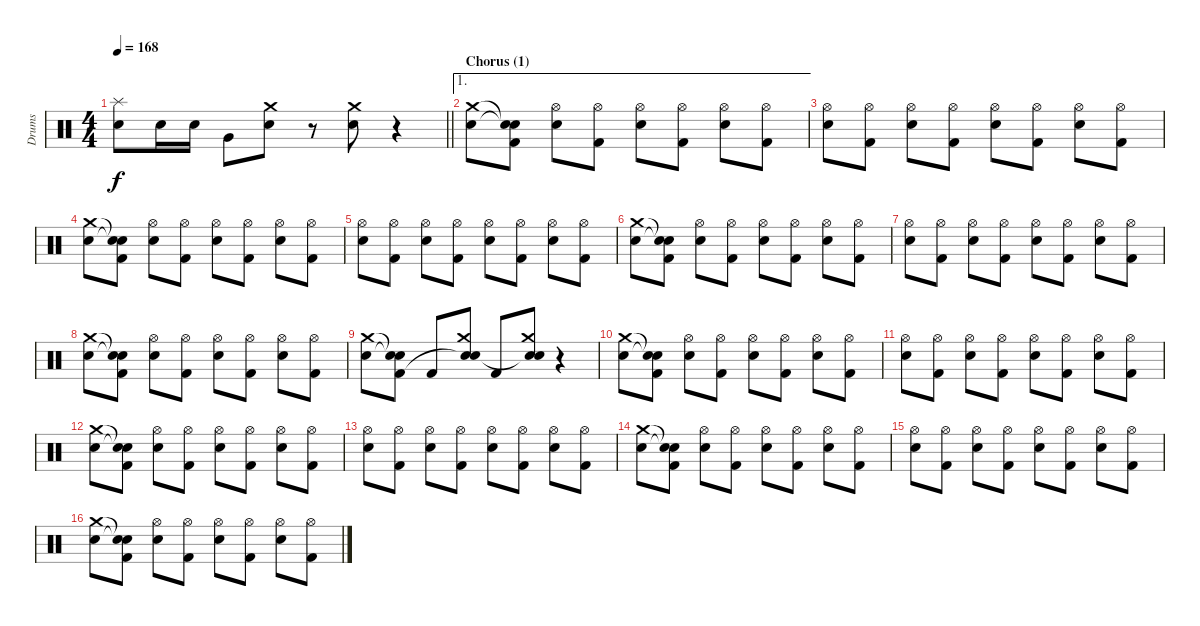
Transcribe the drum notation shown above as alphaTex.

\track ("Drums" "Drums") {instrument percussion}
\staff {score}
\articulation defaults
\ts (4 4)
\tempo 168
\clef neutral
\barLineRight lightlight
\ks c
("Splash (hit)" "Electric Snare (hit)").8{dy f} "Electric Snare (hit)".16 "Electric Snare (hit)".16 "Very Low Tom (hit)".8 ("Crash medium (hit)" "Electric Snare (hit)").8 r.8 ("Crash medium (hit)" "Electric Snare (hit)").8 r.4 |
\ae 1
\section ("" "Chorus (1)")
("Crash medium (hit)" "Electric Snare (hit)").8 ("Snare (hit)"{t} "Snare (hit)"{t} "Kick (hit) 2").8 ("Hi-Hat (open)" "Electric Snare (hit)").8 ("Hi-Hat (open)" "Kick (hit) 2").8 ("Hi-Hat (open)" "Electric Snare (hit)").8 ("Hi-Hat (open)" "Kick (hit) 2").8 ("Hi-Hat (open)" "Electric Snare (hit)").8 ("Hi-Hat (open)" "Kick (hit) 2").8 |
("Hi-Hat (open)" "Electric Snare (hit)").8 ("Hi-Hat (open)" "Kick (hit) 2").8 ("Hi-Hat (open)" "Electric Snare (hit)").8 ("Hi-Hat (open)" "Kick (hit) 2").8 ("Hi-Hat (open)" "Electric Snare (hit)").8 ("Hi-Hat (open)" "Kick (hit) 2").8 ("Hi-Hat (open)" "Electric Snare (hit)").8 ("Hi-Hat (open)" "Kick (hit) 2").8 |
("Crash medium (hit)" "Electric Snare (hit)").8 ("Snare (hit)"{t} "Snare (hit)"{t} "Kick (hit) 2").8 ("Hi-Hat (open)" "Electric Snare (hit)").8 ("Hi-Hat (open)" "Kick (hit) 2").8 ("Hi-Hat (open)" "Electric Snare (hit)").8 ("Hi-Hat (open)" "Kick (hit) 2").8 ("Hi-Hat (open)" "Electric Snare (hit)").8 ("Hi-Hat (open)" "Kick (hit) 2").8 |
("Hi-Hat (open)" "Electric Snare (hit)").8 ("Hi-Hat (open)" "Kick (hit) 2").8 ("Hi-Hat (open)" "Electric Snare (hit)").8 ("Hi-Hat (open)" "Kick (hit) 2").8 ("Hi-Hat (open)" "Electric Snare (hit)").8 ("Hi-Hat (open)" "Kick (hit) 2").8 ("Hi-Hat (open)" "Electric Snare (hit)").8 ("Hi-Hat (open)" "Kick (hit) 2").8 |
("Crash medium (hit)" "Electric Snare (hit)").8 ("Snare (hit)"{t} "Snare (hit)"{t} "Kick (hit) 2").8 ("Hi-Hat (open)" "Electric Snare (hit)").8 ("Hi-Hat (open)" "Kick (hit) 2").8 ("Hi-Hat (open)" "Electric Snare (hit)").8 ("Hi-Hat (open)" "Kick (hit) 2").8 ("Hi-Hat (open)" "Electric Snare (hit)").8 ("Hi-Hat (open)" "Kick (hit) 2").8 |
("Hi-Hat (open)" "Electric Snare (hit)").8 ("Hi-Hat (open)" "Kick (hit) 2").8 ("Hi-Hat (open)" "Electric Snare (hit)").8 ("Hi-Hat (open)" "Kick (hit) 2").8 ("Hi-Hat (open)" "Electric Snare (hit)").8 ("Hi-Hat (open)" "Kick (hit) 2").8 ("Hi-Hat (open)" "Electric Snare (hit)").8 ("Hi-Hat (open)" "Kick (hit) 2").8 |
("Crash medium (hit)" "Electric Snare (hit)").8 ("Snare (hit)"{t} "Snare (hit)"{t} "Kick (hit) 2").8 ("Hi-Hat (open)" "Electric Snare (hit)").8 ("Hi-Hat (open)" "Kick (hit) 2").8 ("Hi-Hat (open)" "Electric Snare (hit)").8 ("Hi-Hat (open)" "Kick (hit) 2").8 ("Hi-Hat (open)" "Electric Snare (hit)").8 ("Hi-Hat (open)" "Kick (hit) 2").8 |
("Crash medium (hit)" "Electric Snare (hit)").8 ("Snare (hit)"{t} "Snare (hit)"{t} "Kick (hit) 2").8 "Kick (hit) 2".8 ("Crash medium (hit)" "Electric Snare (hit)" "Snare (hit)"{t}).8 "Kick (hit) 2".8 ("Crash medium (hit)" "Electric Snare (hit)" "Snare (hit)"{t}).8 r.4 |
("Crash medium (hit)" "Electric Snare (hit)").8 ("Snare (hit)"{t} "Snare (hit)"{t} "Kick (hit) 2").8 ("Hi-Hat (open)" "Electric Snare (hit)").8 ("Hi-Hat (open)" "Kick (hit) 2").8 ("Hi-Hat (open)" "Electric Snare (hit)").8 ("Hi-Hat (open)" "Kick (hit) 2").8 ("Hi-Hat (open)" "Electric Snare (hit)").8 ("Hi-Hat (open)" "Kick (hit) 2").8 |
("Hi-Hat (open)" "Electric Snare (hit)").8 ("Hi-Hat (open)" "Kick (hit) 2").8 ("Hi-Hat (open)" "Electric Snare (hit)").8 ("Hi-Hat (open)" "Kick (hit) 2").8 ("Hi-Hat (open)" "Electric Snare (hit)").8 ("Hi-Hat (open)" "Kick (hit) 2").8 ("Hi-Hat (open)" "Electric Snare (hit)").8 ("Hi-Hat (open)" "Kick (hit) 2").8 |
("Crash medium (hit)" "Electric Snare (hit)").8 ("Snare (hit)"{t} "Snare (hit)"{t} "Kick (hit) 2").8 ("Hi-Hat (open)" "Electric Snare (hit)").8 ("Hi-Hat (open)" "Kick (hit) 2").8 ("Hi-Hat (open)" "Electric Snare (hit)").8 ("Hi-Hat (open)" "Kick (hit) 2").8 ("Hi-Hat (open)" "Electric Snare (hit)").8 ("Hi-Hat (open)" "Kick (hit) 2").8 |
("Hi-Hat (open)" "Electric Snare (hit)").8 ("Hi-Hat (open)" "Kick (hit) 2").8 ("Hi-Hat (open)" "Electric Snare (hit)").8 ("Hi-Hat (open)" "Kick (hit) 2").8 ("Hi-Hat (open)" "Electric Snare (hit)").8 ("Hi-Hat (open)" "Kick (hit) 2").8 ("Hi-Hat (open)" "Electric Snare (hit)").8 ("Hi-Hat (open)" "Kick (hit) 2").8 |
("Crash medium (hit)" "Electric Snare (hit)").8 ("Snare (hit)"{t} "Snare (hit)"{t} "Kick (hit) 2").8 ("Hi-Hat (open)" "Electric Snare (hit)").8 ("Hi-Hat (open)" "Kick (hit) 2").8 ("Hi-Hat (open)" "Electric Snare (hit)").8 ("Hi-Hat (open)" "Kick (hit) 2").8 ("Hi-Hat (open)" "Electric Snare (hit)").8 ("Hi-Hat (open)" "Kick (hit) 2").8 |
("Hi-Hat (open)" "Electric Snare (hit)").8 ("Hi-Hat (open)" "Kick (hit) 2").8 ("Hi-Hat (open)" "Electric Snare (hit)").8 ("Hi-Hat (open)" "Kick (hit) 2").8 ("Hi-Hat (open)" "Electric Snare (hit)").8 ("Hi-Hat (open)" "Kick (hit) 2").8 ("Hi-Hat (open)" "Electric Snare (hit)").8 ("Hi-Hat (open)" "Kick (hit) 2").8 |
("Crash medium (hit)" "Electric Snare (hit)").8 ("Snare (hit)"{t} "Snare (hit)"{t} "Kick (hit) 2").8 ("Hi-Hat (open)" "Electric Snare (hit)").8 ("Hi-Hat (open)" "Kick (hit) 2").8 ("Hi-Hat (open)" "Electric Snare (hit)").8 ("Hi-Hat (open)" "Kick (hit) 2").8 ("Hi-Hat (open)" "Electric Snare (hit)").8 ("Hi-Hat (open)" "Kick (hit) 2").8
